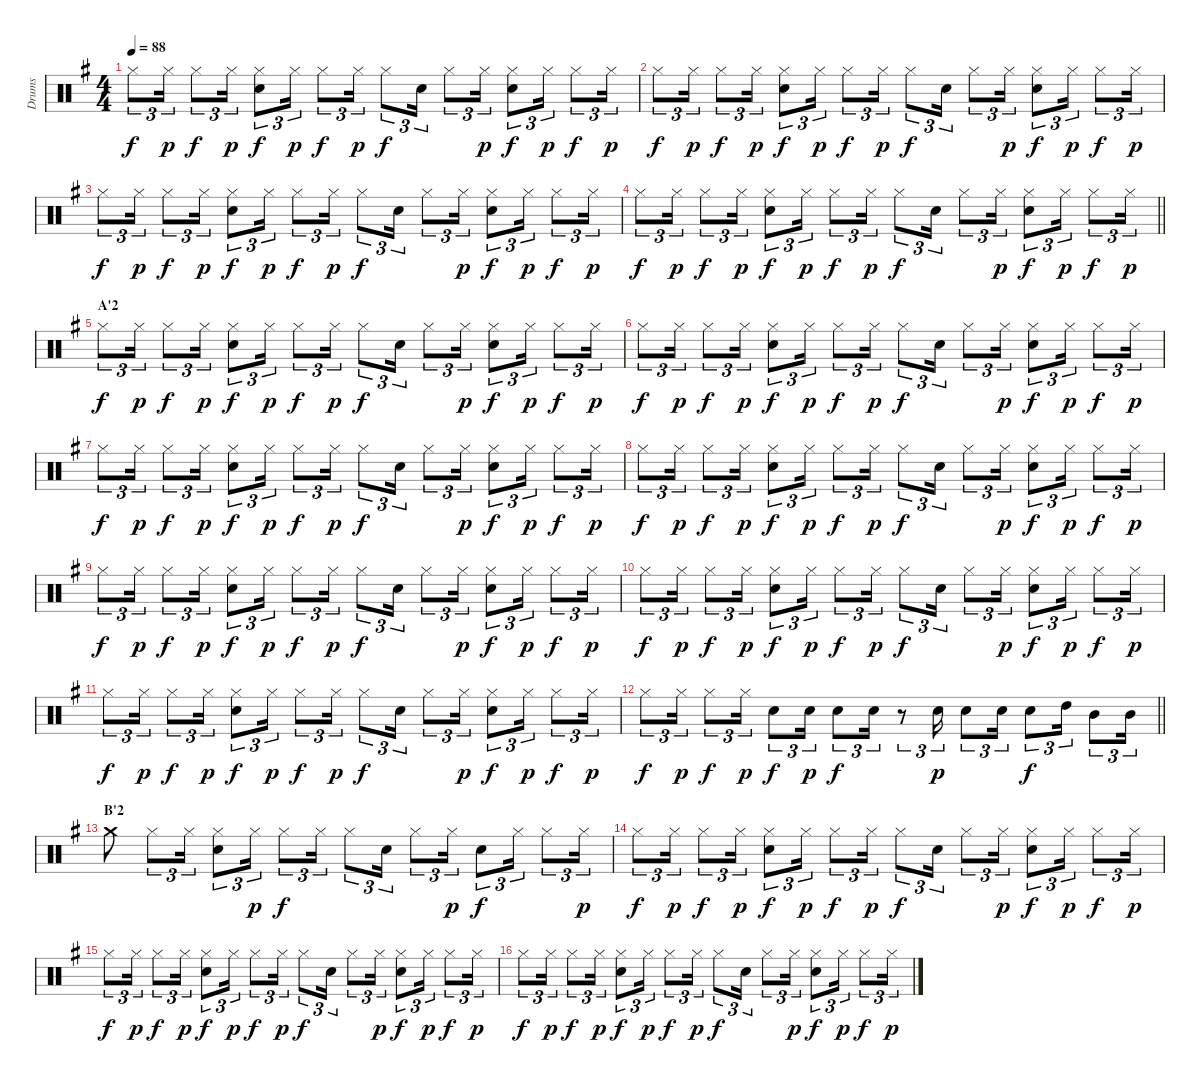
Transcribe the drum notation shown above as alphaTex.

\track ("Drums" "Drums") {instrument percussion}
\staff {score}
\articulation defaults
\ts (4 4)
\tempo 88
\clef neutral
\ks g "Hi-Hat (closed)".8{tu (3 2) dy f} "Hi-Hat (closed)".16{tu (3 2) dy p} "Hi-Hat (closed)".8{tu (3 2) dy f} "Hi-Hat (closed)".16{tu (3 2) dy p}
("Hi-Hat (closed)" "Snare (hit) 2").8{tu (3 2) dy f} "Hi-Hat (closed)".16{tu (3 2) dy p} "Hi-Hat (closed)".8{tu (3 2) dy f} "Hi-Hat (closed)".16{tu (3 2) dy p} "Hi-Hat (closed)".8{tu (3 2) dy f} "Snare (hit) 2".16{tu (3 2)} "Hi-Hat (closed)".8{tu (3 2)} "Hi-Hat (closed)".16{tu (3 2) dy p} ("Hi-Hat (closed)" "Snare (hit) 2").8{tu (3 2) dy f} "Hi-Hat (closed)".16{tu (3 2) dy p} "Hi-Hat (closed)".8{tu (3 2) dy f} "Hi-Hat (closed)".16{tu (3 2) dy p} |
"Hi-Hat (closed)".8{tu (3 2) dy f} "Hi-Hat (closed)".16{tu (3 2) dy p} "Hi-Hat (closed)".8{tu (3 2) dy f} "Hi-Hat (closed)".16{tu (3 2) dy p} ("Hi-Hat (closed)" "Snare (hit) 2").8{tu (3 2) dy f} "Hi-Hat (closed)".16{tu (3 2) dy p} "Hi-Hat (closed)".8{tu (3 2) dy f} "Hi-Hat (closed)".16{tu (3 2) dy p} "Hi-Hat (closed)".8{tu (3 2) dy f} "Snare (hit) 2".16{tu (3 2)} "Hi-Hat (closed)".8{tu (3 2)} "Hi-Hat (closed)".16{tu (3 2) dy p} ("Hi-Hat (closed)" "Snare (hit) 2").8{tu (3 2) dy f} "Hi-Hat (closed)".16{tu (3 2) dy p} "Hi-Hat (closed)".8{tu (3 2) dy f} "Hi-Hat (closed)".16{tu (3 2) dy p} |
"Hi-Hat (closed)".8{tu (3 2) dy f} "Hi-Hat (closed)".16{tu (3 2) dy p} "Hi-Hat (closed)".8{tu (3 2) dy f} "Hi-Hat (closed)".16{tu (3 2) dy p} ("Hi-Hat (closed)" "Snare (hit) 2").8{tu (3 2) dy f} "Hi-Hat (closed)".16{tu (3 2) dy p} "Hi-Hat (closed)".8{tu (3 2) dy f} "Hi-Hat (closed)".16{tu (3 2) dy p} "Hi-Hat (closed)".8{tu (3 2) dy f} "Snare (hit) 2".16{tu (3 2)} "Hi-Hat (closed)".8{tu (3 2)} "Hi-Hat (closed)".16{tu (3 2) dy p} ("Hi-Hat (closed)" "Snare (hit) 2").8{tu (3 2) dy f} "Hi-Hat (closed)".16{tu (3 2) dy p} "Hi-Hat (closed)".8{tu (3 2) dy f} "Hi-Hat (closed)".16{tu (3 2) dy p} |
\barLineRight lightlight "Hi-Hat (closed)".8{tu (3 2) dy f} "Hi-Hat (closed)".16{tu (3 2) dy p} "Hi-Hat (closed)".8{tu (3 2) dy f} "Hi-Hat (closed)".16{tu (3 2) dy p}
("Hi-Hat (closed)" "Snare (hit) 2").8{tu (3 2) dy f} "Hi-Hat (closed)".16{tu (3 2) dy p} "Hi-Hat (closed)".8{tu (3 2) dy f} "Hi-Hat (closed)".16{tu (3 2) dy p} "Hi-Hat (closed)".8{tu (3 2) dy f} "Snare (hit) 2".16{tu (3 2)} "Hi-Hat (closed)".8{tu (3 2)} "Hi-Hat (closed)".16{tu (3 2) dy p} ("Hi-Hat (closed)" "Snare (hit) 2").8{tu (3 2) dy f} "Hi-Hat (closed)".16{tu (3 2) dy p} "Hi-Hat (closed)".8{tu (3 2) dy f} "Hi-Hat (closed)".16{tu (3 2) dy p} |
\section ("" "A'2")
"Hi-Hat (closed)".8{tu (3 2) dy f} "Hi-Hat (closed)".16{tu (3 2) dy p} "Hi-Hat (closed)".8{tu (3 2) dy f} "Hi-Hat (closed)".16{tu (3 2) dy p} ("Hi-Hat (closed)" "Snare (hit) 2").8{tu (3 2) dy f} "Hi-Hat (closed)".16{tu (3 2) dy p} "Hi-Hat (closed)".8{tu (3 2) dy f} "Hi-Hat (closed)".16{tu (3 2) dy p} "Hi-Hat (closed)".8{tu (3 2) dy f} "Snare (hit) 2".16{tu (3 2)} "Hi-Hat (closed)".8{tu (3 2)} "Hi-Hat (closed)".16{tu (3 2) dy p} ("Hi-Hat (closed)" "Snare (hit) 2").8{tu (3 2) dy f} "Hi-Hat (closed)".16{tu (3 2) dy p} "Hi-Hat (closed)".8{tu (3 2) dy f} "Hi-Hat (closed)".16{tu (3 2) dy p} |
"Hi-Hat (closed)".8{tu (3 2) dy f} "Hi-Hat (closed)".16{tu (3 2) dy p} "Hi-Hat (closed)".8{tu (3 2) dy f} "Hi-Hat (closed)".16{tu (3 2) dy p} ("Hi-Hat (closed)" "Snare (hit) 2").8{tu (3 2) dy f} "Hi-Hat (closed)".16{tu (3 2) dy p} "Hi-Hat (closed)".8{tu (3 2) dy f} "Hi-Hat (closed)".16{tu (3 2) dy p} "Hi-Hat (closed)".8{tu (3 2) dy f} "Snare (hit) 2".16{tu (3 2)} "Hi-Hat (closed)".8{tu (3 2)} "Hi-Hat (closed)".16{tu (3 2) dy p} ("Hi-Hat (closed)" "Snare (hit) 2").8{tu (3 2) dy f} "Hi-Hat (closed)".16{tu (3 2) dy p} "Hi-Hat (closed)".8{tu (3 2) dy f} "Hi-Hat (closed)".16{tu (3 2) dy p} |
"Hi-Hat (closed)".8{tu (3 2) dy f} "Hi-Hat (closed)".16{tu (3 2) dy p} "Hi-Hat (closed)".8{tu (3 2) dy f} "Hi-Hat (closed)".16{tu (3 2) dy p} ("Hi-Hat (closed)" "Snare (hit) 2").8{tu (3 2) dy f} "Hi-Hat (closed)".16{tu (3 2) dy p} "Hi-Hat (closed)".8{tu (3 2) dy f} "Hi-Hat (closed)".16{tu (3 2) dy p} "Hi-Hat (closed)".8{tu (3 2) dy f} "Snare (hit) 2".16{tu (3 2)} "Hi-Hat (closed)".8{tu (3 2)} "Hi-Hat (closed)".16{tu (3 2) dy p} ("Hi-Hat (closed)" "Snare (hit) 2").8{tu (3 2) dy f} "Hi-Hat (closed)".16{tu (3 2) dy p} "Hi-Hat (closed)".8{tu (3 2) dy f} "Hi-Hat (closed)".16{tu (3 2) dy p} |
"Hi-Hat (closed)".8{tu (3 2) dy f} "Hi-Hat (closed)".16{tu (3 2) dy p} "Hi-Hat (closed)".8{tu (3 2) dy f} "Hi-Hat (closed)".16{tu (3 2) dy p} ("Hi-Hat (closed)" "Snare (hit) 2").8{tu (3 2) dy f} "Hi-Hat (closed)".16{tu (3 2) dy p} "Hi-Hat (closed)".8{tu (3 2) dy f} "Hi-Hat (closed)".16{tu (3 2) dy p} "Hi-Hat (closed)".8{tu (3 2) dy f} "Snare (hit) 2".16{tu (3 2)} "Hi-Hat (closed)".8{tu (3 2)} "Hi-Hat (closed)".16{tu (3 2) dy p} ("Hi-Hat (closed)" "Snare (hit) 2").8{tu (3 2) dy f} "Hi-Hat (closed)".16{tu (3 2) dy p} "Hi-Hat (closed)".8{tu (3 2) dy f} "Hi-Hat (closed)".16{tu (3 2) dy p} |
"Hi-Hat (closed)".8{tu (3 2) dy f} "Hi-Hat (closed)".16{tu (3 2) dy p} "Hi-Hat (closed)".8{tu (3 2) dy f} "Hi-Hat (closed)".16{tu (3 2) dy p} ("Hi-Hat (closed)" "Snare (hit) 2").8{tu (3 2) dy f} "Hi-Hat (closed)".16{tu (3 2) dy p} "Hi-Hat (closed)".8{tu (3 2) dy f} "Hi-Hat (closed)".16{tu (3 2) dy p} "Hi-Hat (closed)".8{tu (3 2) dy f} "Snare (hit) 2".16{tu (3 2)} "Hi-Hat (closed)".8{tu (3 2)} "Hi-Hat (closed)".16{tu (3 2) dy p} ("Hi-Hat (closed)" "Snare (hit) 2").8{tu (3 2) dy f} "Hi-Hat (closed)".16{tu (3 2) dy p} "Hi-Hat (closed)".8{tu (3 2) dy f} "Hi-Hat (closed)".16{tu (3 2) dy p} |
"Hi-Hat (closed)".8{tu (3 2) dy f} "Hi-Hat (closed)".16{tu (3 2) dy p} "Hi-Hat (closed)".8{tu (3 2) dy f} "Hi-Hat (closed)".16{tu (3 2) dy p} ("Hi-Hat (closed)" "Snare (hit) 2").8{tu (3 2) dy f} "Hi-Hat (closed)".16{tu (3 2) dy p} "Hi-Hat (closed)".8{tu (3 2) dy f} "Hi-Hat (closed)".16{tu (3 2) dy p} "Hi-Hat (closed)".8{tu (3 2) dy f} "Snare (hit) 2".16{tu (3 2)} "Hi-Hat (closed)".8{tu (3 2)} "Hi-Hat (closed)".16{tu (3 2) dy p} ("Hi-Hat (closed)" "Snare (hit) 2").8{tu (3 2) dy f} "Hi-Hat (closed)".16{tu (3 2) dy p} "Hi-Hat (closed)".8{tu (3 2) dy f} "Hi-Hat (closed)".16{tu (3 2) dy p} |
"Hi-Hat (closed)".8{tu (3 2) dy f} "Hi-Hat (closed)".16{tu (3 2) dy p} "Hi-Hat (closed)".8{tu (3 2) dy f} "Hi-Hat (closed)".16{tu (3 2) dy p} ("Hi-Hat (closed)" "Snare (hit) 2").8{tu (3 2) dy f} "Hi-Hat (closed)".16{tu (3 2) dy p} "Hi-Hat (closed)".8{tu (3 2) dy f} "Hi-Hat (closed)".16{tu (3 2) dy p} "Hi-Hat (closed)".8{tu (3 2) dy f} "Snare (hit) 2".16{tu (3 2)} "Hi-Hat (closed)".8{tu (3 2)} "Hi-Hat (closed)".16{tu (3 2) dy p} ("Hi-Hat (closed)" "Snare (hit) 2").8{tu (3 2) dy f} "Hi-Hat (closed)".16{tu (3 2) dy p} "Hi-Hat (closed)".8{tu (3 2) dy f} "Hi-Hat (closed)".16{tu (3 2) dy p} |
\barLineRight lightlight "Hi-Hat (closed)".8{tu (3 2) dy f} "Hi-Hat (closed)".16{tu (3 2) dy p} "Hi-Hat (closed)".8{tu (3 2) dy f} "Hi-Hat (closed)".16{tu (3 2) dy p} "Snare (hit) 2".8{tu (3 2) dy f} "Snare (hit) 2".16{tu (3 2) dy p} "Snare (hit) 2".8{tu (3 2) dy f} "Snare (hit) 2".16{tu (3 2)}
r.8{tu (3 2)} "Snare (hit) 2".16{tu (3 2) dy p} "Snare (hit) 2".8{tu (3 2)} "Snare (hit) 2".16{tu (3 2)} "Snare (hit) 2".8{tu (3 2) dy f} "High Tom (hit)".16{tu (3 2)} "Mid Tom (hit)".8{tu (3 2)} "Mid Tom (hit)".16{tu (3 2)} |
\section ("" "B'2")
"Crash medium (hit)".8 "Hi-Hat (closed)".8{tu (3 2)} "Hi-Hat (closed)".16{tu (3 2)} ("Hi-Hat (closed)" "Snare (hit) 2").8{tu (3 2)} "Hi-Hat (closed)".16{tu (3 2) dy p} "Hi-Hat (closed)".8{tu (3 2) dy f} "Hi-Hat (closed)".16{tu (3 2)} "Hi-Hat (closed)".8{tu (3 2)} "Snare (hit) 2".16{tu (3 2)} "Hi-Hat (closed)".8{tu (3 2)} "Hi-Hat (closed)".16{tu (3 2) dy p} "Snare (hit) 2".8{tu (3 2) dy f} "Hi-Hat (closed)".16{tu (3 2)} "Hi-Hat (closed)".8{tu (3 2)} "Hi-Hat (closed)".16{tu (3 2) dy p} |
"Hi-Hat (closed)".8{tu (3 2) dy f} "Hi-Hat (closed)".16{tu (3 2) dy p} "Hi-Hat (closed)".8{tu (3 2) dy f} "Hi-Hat (closed)".16{tu (3 2) dy p} ("Hi-Hat (closed)" "Snare (hit) 2").8{tu (3 2) dy f} "Hi-Hat (closed)".16{tu (3 2) dy p} "Hi-Hat (closed)".8{tu (3 2) dy f} "Hi-Hat (closed)".16{tu (3 2) dy p} "Hi-Hat (closed)".8{tu (3 2) dy f} "Snare (hit) 2".16{tu (3 2)} "Hi-Hat (closed)".8{tu (3 2)} "Hi-Hat (closed)".16{tu (3 2) dy p} ("Hi-Hat (closed)" "Snare (hit) 2").8{tu (3 2) dy f} "Hi-Hat (closed)".16{tu (3 2) dy p} "Hi-Hat (closed)".8{tu (3 2) dy f} "Hi-Hat (closed)".16{tu (3 2) dy p} |
"Hi-Hat (closed)".8{tu (3 2) dy f} "Hi-Hat (closed)".16{tu (3 2) dy p} "Hi-Hat (closed)".8{tu (3 2) dy f} "Hi-Hat (closed)".16{tu (3 2) dy p} ("Hi-Hat (closed)" "Snare (hit) 2").8{tu (3 2) dy f} "Hi-Hat (closed)".16{tu (3 2) dy p} "Hi-Hat (closed)".8{tu (3 2) dy f} "Hi-Hat (closed)".16{tu (3 2) dy p} "Hi-Hat (closed)".8{tu (3 2) dy f} "Snare (hit) 2".16{tu (3 2)} "Hi-Hat (closed)".8{tu (3 2)} "Hi-Hat (closed)".16{tu (3 2) dy p} ("Hi-Hat (closed)" "Snare (hit) 2").8{tu (3 2) dy f} "Hi-Hat (closed)".16{tu (3 2) dy p} "Hi-Hat (closed)".8{tu (3 2) dy f} "Hi-Hat (closed)".16{tu (3 2) dy p} |
"Hi-Hat (closed)".8{tu (3 2) dy f} "Hi-Hat (closed)".16{tu (3 2) dy p} "Hi-Hat (closed)".8{tu (3 2) dy f} "Hi-Hat (closed)".16{tu (3 2) dy p} ("Hi-Hat (closed)" "Snare (hit) 2").8{tu (3 2) dy f} "Hi-Hat (closed)".16{tu (3 2) dy p} "Hi-Hat (closed)".8{tu (3 2) dy f} "Hi-Hat (closed)".16{tu (3 2) dy p} "Hi-Hat (closed)".8{tu (3 2) dy f} "Snare (hit) 2".16{tu (3 2)} "Hi-Hat (closed)".8{tu (3 2)} "Hi-Hat (closed)".16{tu (3 2) dy p} ("Hi-Hat (closed)" "Snare (hit) 2").8{tu (3 2) dy f} "Hi-Hat (closed)".16{tu (3 2) dy p} "Hi-Hat (closed)".8{tu (3 2) dy f} "Hi-Hat (closed)".16{tu (3 2) dy p}
